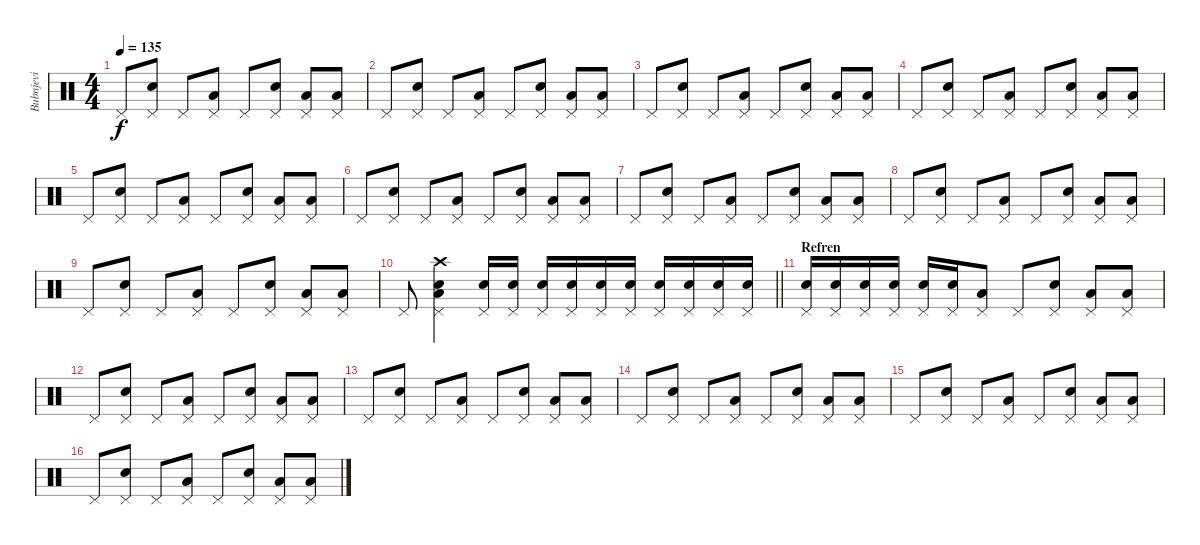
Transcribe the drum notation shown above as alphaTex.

\track ("Bubnjevi" "Bubnjevi") {instrument percussion}
\staff {score}
\articulation defaults
\ts (4 4)
\tempo 135
\clef neutral
\ks c "Pedal Hi-Hat (hit)".8{dy f}
("Pedal Hi-Hat (hit)" "Snare (hit) 2").8 "Pedal Hi-Hat (hit)".8 ("Pedal Hi-Hat (hit)" "Low Tom (hit)").8 "Pedal Hi-Hat (hit)".8 ("Pedal Hi-Hat (hit)" "Snare (hit) 2").8 ("Pedal Hi-Hat (hit)" "Low Tom (hit)").8 ("Pedal Hi-Hat (hit)" "Low Tom (hit)").8 |
"Pedal Hi-Hat (hit)".8 ("Pedal Hi-Hat (hit)" "Snare (hit) 2").8 "Pedal Hi-Hat (hit)".8 ("Pedal Hi-Hat (hit)" "Low Tom (hit)").8 "Pedal Hi-Hat (hit)".8 ("Pedal Hi-Hat (hit)" "Snare (hit) 2").8 ("Pedal Hi-Hat (hit)" "Low Tom (hit)").8 ("Pedal Hi-Hat (hit)" "Low Tom (hit)").8 |
"Pedal Hi-Hat (hit)".8 ("Pedal Hi-Hat (hit)" "Snare (hit) 2").8 "Pedal Hi-Hat (hit)".8 ("Pedal Hi-Hat (hit)" "Low Tom (hit)").8 "Pedal Hi-Hat (hit)".8 ("Pedal Hi-Hat (hit)" "Snare (hit) 2").8 ("Pedal Hi-Hat (hit)" "Low Tom (hit)").8 ("Pedal Hi-Hat (hit)" "Low Tom (hit)").8 |
"Pedal Hi-Hat (hit)".8 ("Pedal Hi-Hat (hit)" "Snare (hit) 2").8 "Pedal Hi-Hat (hit)".8 ("Pedal Hi-Hat (hit)" "Low Tom (hit)").8 "Pedal Hi-Hat (hit)".8 ("Pedal Hi-Hat (hit)" "Snare (hit) 2").8 ("Pedal Hi-Hat (hit)" "Low Tom (hit)").8 ("Pedal Hi-Hat (hit)" "Low Tom (hit)").8 |
"Pedal Hi-Hat (hit)".8 ("Pedal Hi-Hat (hit)" "Snare (hit) 2").8 "Pedal Hi-Hat (hit)".8 ("Pedal Hi-Hat (hit)" "Low Tom (hit)").8 "Pedal Hi-Hat (hit)".8 ("Pedal Hi-Hat (hit)" "Snare (hit) 2").8 ("Pedal Hi-Hat (hit)" "Low Tom (hit)").8 ("Pedal Hi-Hat (hit)" "Low Tom (hit)").8 |
"Pedal Hi-Hat (hit)".8 ("Pedal Hi-Hat (hit)" "Snare (hit) 2").8 "Pedal Hi-Hat (hit)".8 ("Pedal Hi-Hat (hit)" "Low Tom (hit)").8 "Pedal Hi-Hat (hit)".8 ("Pedal Hi-Hat (hit)" "Snare (hit) 2").8 ("Pedal Hi-Hat (hit)" "Low Tom (hit)").8 ("Pedal Hi-Hat (hit)" "Low Tom (hit)").8 |
"Pedal Hi-Hat (hit)".8 ("Pedal Hi-Hat (hit)" "Snare (hit) 2").8 "Pedal Hi-Hat (hit)".8 ("Pedal Hi-Hat (hit)" "Low Tom (hit)").8 "Pedal Hi-Hat (hit)".8 ("Pedal Hi-Hat (hit)" "Snare (hit) 2").8 ("Pedal Hi-Hat (hit)" "Low Tom (hit)").8 ("Pedal Hi-Hat (hit)" "Low Tom (hit)").8 |
"Pedal Hi-Hat (hit)".8 ("Pedal Hi-Hat (hit)" "Snare (hit) 2").8 "Pedal Hi-Hat (hit)".8 ("Pedal Hi-Hat (hit)" "Low Tom (hit)").8 "Pedal Hi-Hat (hit)".8 ("Pedal Hi-Hat (hit)" "Snare (hit) 2").8 ("Pedal Hi-Hat (hit)" "Low Tom (hit)").8 ("Pedal Hi-Hat (hit)" "Low Tom (hit)").8 |
"Pedal Hi-Hat (hit)".8 ("Pedal Hi-Hat (hit)" "Snare (hit) 2").8 "Pedal Hi-Hat (hit)".8 ("Pedal Hi-Hat (hit)" "Low Tom (hit)").8 "Pedal Hi-Hat (hit)".8 ("Pedal Hi-Hat (hit)" "Snare (hit) 2").8 ("Pedal Hi-Hat (hit)" "Low Tom (hit)").8 ("Pedal Hi-Hat (hit)" "Low Tom (hit)").8 |
\barLineRight lightlight "Pedal Hi-Hat (hit)".8
("Pedal Hi-Hat (hit)" "Low Tom (hit)" "Crash high (hit)" "Snare (hit) 2").4 ("Pedal Hi-Hat (hit)" "Snare (hit) 2").16 ("Pedal Hi-Hat (hit)" "Snare (hit) 2").16 ("Pedal Hi-Hat (hit)" "Snare (hit) 2").16 ("Pedal Hi-Hat (hit)" "Snare (hit) 2").16 ("Pedal Hi-Hat (hit)" "Snare (hit) 2").16 ("Pedal Hi-Hat (hit)" "Snare (hit) 2").16 ("Pedal Hi-Hat (hit)" "Snare (hit) 2").16 ("Pedal Hi-Hat (hit)" "Snare (hit) 2").16 ("Pedal Hi-Hat (hit)" "Snare (hit) 2").16 ("Pedal Hi-Hat (hit)" "Snare (hit) 2").16 |
\section ("" "Refren")
("Pedal Hi-Hat (hit)" "Snare (hit) 2").16 ("Pedal Hi-Hat (hit)" "Snare (hit) 2").16 ("Pedal Hi-Hat (hit)" "Snare (hit) 2").16 ("Pedal Hi-Hat (hit)" "Snare (hit) 2").16 ("Pedal Hi-Hat (hit)" "Snare (hit) 2").16 ("Pedal Hi-Hat (hit)" "Snare (hit) 2").16 ("Pedal Hi-Hat (hit)" "Low Tom (hit)").8 "Pedal Hi-Hat (hit)".8 ("Pedal Hi-Hat (hit)" "Snare (hit) 2").8 ("Pedal Hi-Hat (hit)" "Low Tom (hit)").8 ("Pedal Hi-Hat (hit)" "Low Tom (hit)").8 |
"Pedal Hi-Hat (hit)".8 ("Pedal Hi-Hat (hit)" "Snare (hit) 2").8 "Pedal Hi-Hat (hit)".8 ("Pedal Hi-Hat (hit)" "Low Tom (hit)").8 "Pedal Hi-Hat (hit)".8 ("Pedal Hi-Hat (hit)" "Snare (hit) 2").8 ("Pedal Hi-Hat (hit)" "Low Tom (hit)").8 ("Pedal Hi-Hat (hit)" "Low Tom (hit)").8 |
"Pedal Hi-Hat (hit)".8 ("Pedal Hi-Hat (hit)" "Snare (hit) 2").8 "Pedal Hi-Hat (hit)".8 ("Pedal Hi-Hat (hit)" "Low Tom (hit)").8 "Pedal Hi-Hat (hit)".8 ("Pedal Hi-Hat (hit)" "Snare (hit) 2").8 ("Pedal Hi-Hat (hit)" "Low Tom (hit)").8 ("Pedal Hi-Hat (hit)" "Low Tom (hit)").8 |
"Pedal Hi-Hat (hit)".8 ("Pedal Hi-Hat (hit)" "Snare (hit) 2").8 "Pedal Hi-Hat (hit)".8 ("Pedal Hi-Hat (hit)" "Low Tom (hit)").8 "Pedal Hi-Hat (hit)".8 ("Pedal Hi-Hat (hit)" "Snare (hit) 2").8 ("Pedal Hi-Hat (hit)" "Low Tom (hit)").8 ("Pedal Hi-Hat (hit)" "Low Tom (hit)").8 |
"Pedal Hi-Hat (hit)".8 ("Pedal Hi-Hat (hit)" "Snare (hit) 2").8 "Pedal Hi-Hat (hit)".8 ("Pedal Hi-Hat (hit)" "Low Tom (hit)").8 "Pedal Hi-Hat (hit)".8 ("Pedal Hi-Hat (hit)" "Snare (hit) 2").8 ("Pedal Hi-Hat (hit)" "Low Tom (hit)").8 ("Pedal Hi-Hat (hit)" "Low Tom (hit)").8 |
"Pedal Hi-Hat (hit)".8 ("Pedal Hi-Hat (hit)" "Snare (hit) 2").8 "Pedal Hi-Hat (hit)".8 ("Pedal Hi-Hat (hit)" "Low Tom (hit)").8 "Pedal Hi-Hat (hit)".8 ("Pedal Hi-Hat (hit)" "Snare (hit) 2").8 ("Pedal Hi-Hat (hit)" "Low Tom (hit)").8 ("Pedal Hi-Hat (hit)" "Low Tom (hit)").8
